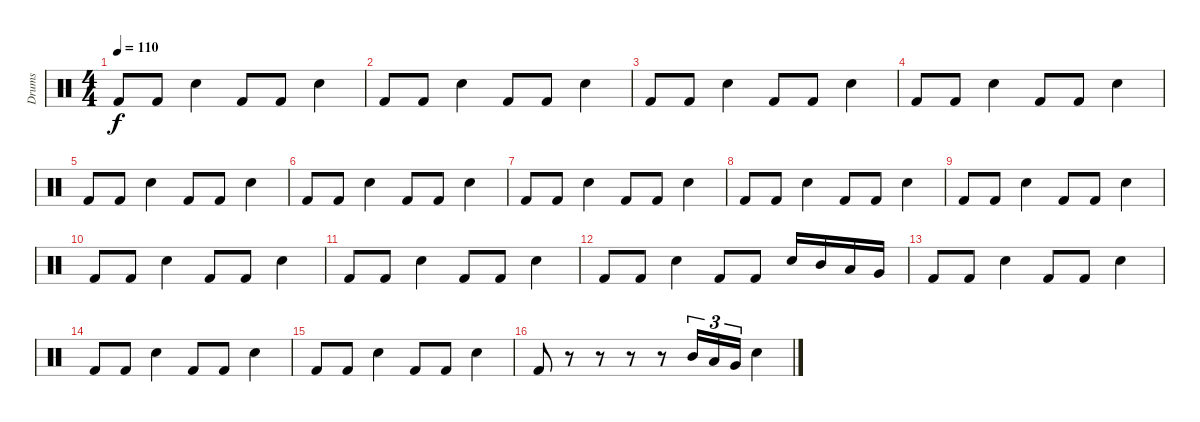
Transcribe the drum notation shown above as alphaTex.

\track ("Drums" "Drums") {instrument percussion}
\staff {score}
\articulation defaults
\ts (4 4)
\tempo 110
\clef neutral
\ks c "Kick (hit) 2".8{dy f} "Kick (hit) 2".8 "Electric Snare (hit)".4 "Kick (hit) 2".8 "Kick (hit) 2".8 "Electric Snare (hit)".4
|
"Kick (hit) 2".8 "Kick (hit) 2".8 "Electric Snare (hit)".4 "Kick (hit) 2".8 "Kick (hit) 2".8 "Electric Snare (hit)".4 |
"Kick (hit) 2".8 "Kick (hit) 2".8 "Electric Snare (hit)".4 "Kick (hit) 2".8 "Kick (hit) 2".8 "Electric Snare (hit)".4 |
"Kick (hit) 2".8 "Kick (hit) 2".8 "Electric Snare (hit)".4 "Kick (hit) 2".8 "Kick (hit) 2".8 "Electric Snare (hit)".4 |
"Kick (hit) 2".8 "Kick (hit) 2".8 "Electric Snare (hit)".4 "Kick (hit) 2".8 "Kick (hit) 2".8 "Electric Snare (hit)".4 |
"Kick (hit) 2".8 "Kick (hit) 2".8 "Electric Snare (hit)".4 "Kick (hit) 2".8 "Kick (hit) 2".8 "Electric Snare (hit)".4 |
"Kick (hit) 2".8 "Kick (hit) 2".8 "Electric Snare (hit)".4 "Kick (hit) 2".8 "Kick (hit) 2".8 "Electric Snare (hit)".4 |
"Kick (hit) 2".8 "Kick (hit) 2".8 "Electric Snare (hit)".4 "Kick (hit) 2".8 "Kick (hit) 2".8 "Electric Snare (hit)".4 |
"Kick (hit) 2".8 "Kick (hit) 2".8 "Electric Snare (hit)".4 "Kick (hit) 2".8 "Kick (hit) 2".8 "Electric Snare (hit)".4 |
"Kick (hit) 2".8 "Kick (hit) 2".8 "Electric Snare (hit)".4 "Kick (hit) 2".8 "Kick (hit) 2".8 "Electric Snare (hit)".4 |
"Kick (hit) 2".8 "Kick (hit) 2".8 "Electric Snare (hit)".4 "Kick (hit) 2".8 "Kick (hit) 2".8 "Electric Snare (hit)".4 |
"Kick (hit) 2".8 "Kick (hit) 2".8 "Electric Snare (hit)".4 "Kick (hit) 2".8 "Kick (hit) 2".8 "Electric Snare (hit)".16 "Mid Tom (hit)".16 "Low Tom (hit)".16 "Very Low Tom (hit)".16 |
"Kick (hit) 2".8 "Kick (hit) 2".8 "Electric Snare (hit)".4 "Kick (hit) 2".8 "Kick (hit) 2".8 "Electric Snare (hit)".4 |
"Kick (hit) 2".8 "Kick (hit) 2".8 "Electric Snare (hit)".4 "Kick (hit) 2".8 "Kick (hit) 2".8 "Electric Snare (hit)".4 |
"Kick (hit) 2".8 "Kick (hit) 2".8 "Electric Snare (hit)".4 "Kick (hit) 2".8 "Kick (hit) 2".8 "Electric Snare (hit)".4 |
"Kick (hit) 2".8 r.8 r.8 r.8 r.8 "Mid Tom (hit)".16{tu (3 2)} "Low Tom (hit)".16{tu (3 2)} "Very Low Tom (hit)".16{tu (3 2)} "Electric Snare (hit)".4
